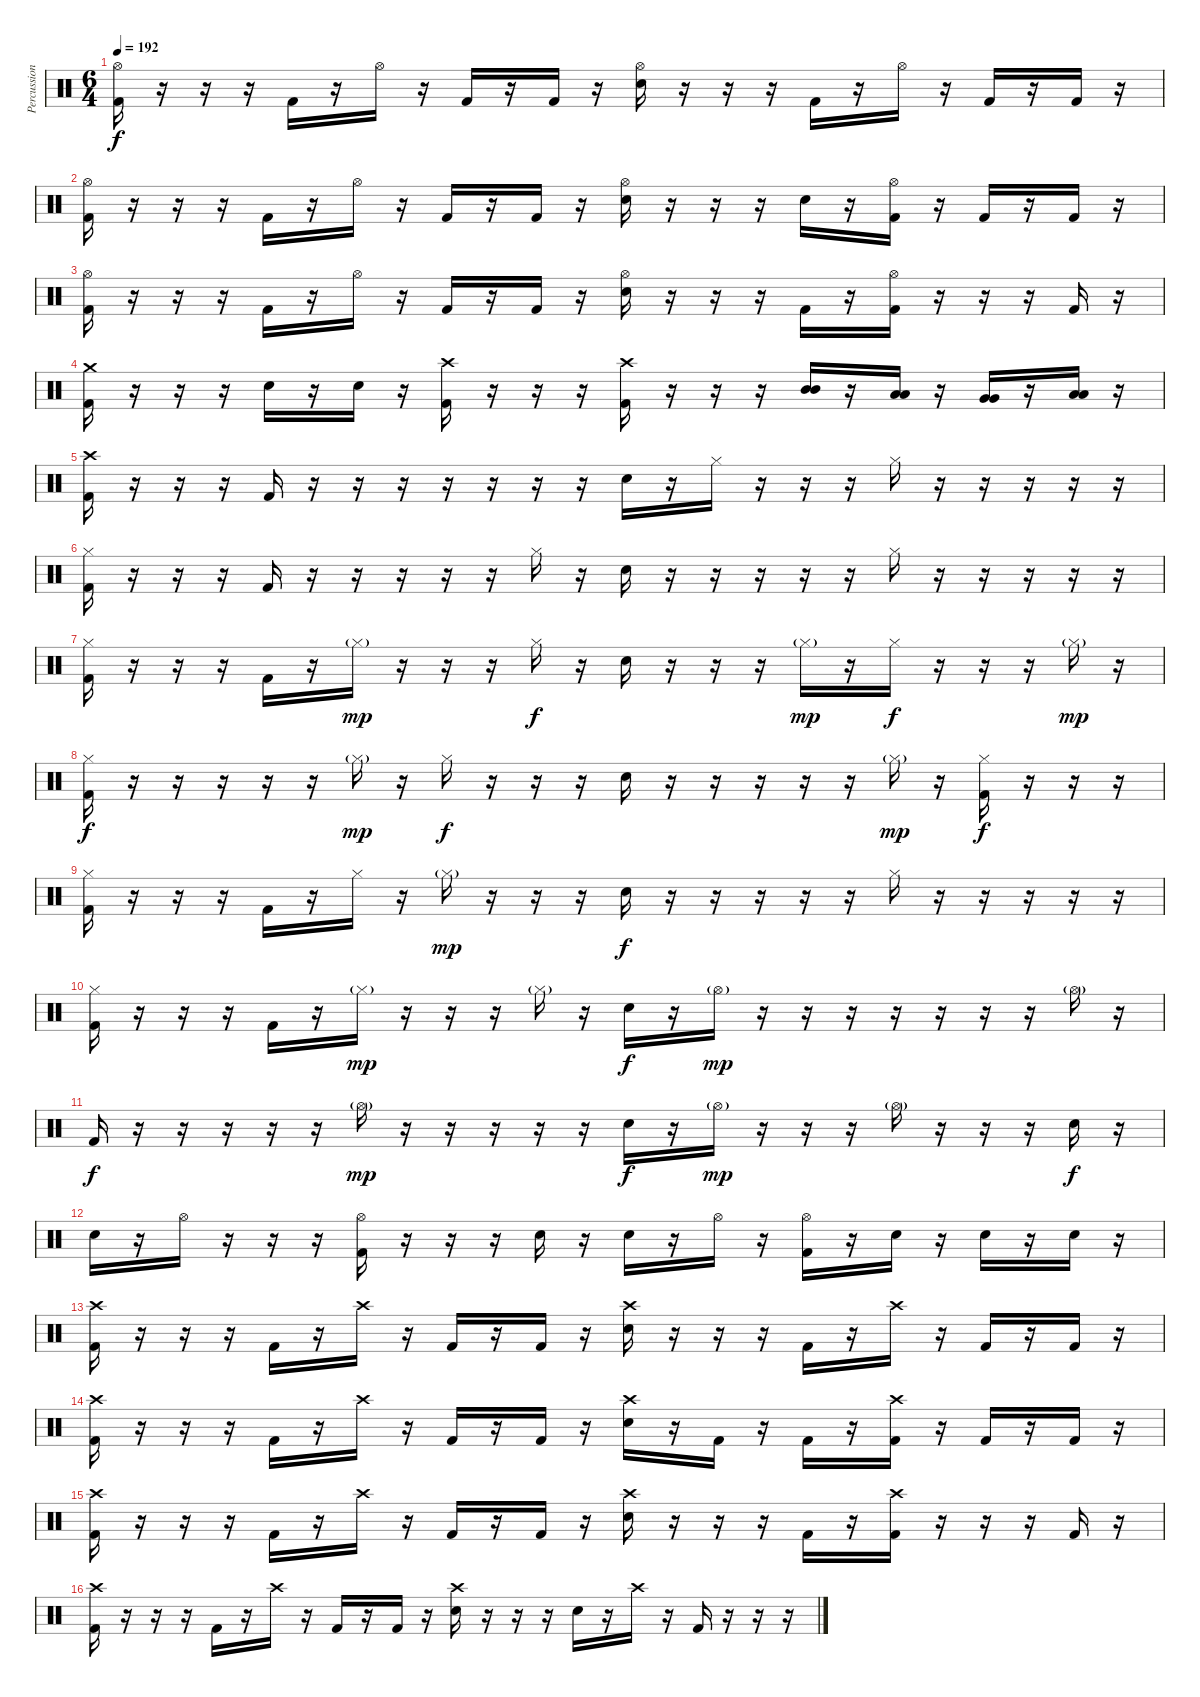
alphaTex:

\track ("Percussion" "Percussion") {instrument percussion}
\staff {score}
\articulation defaults
\ts (6 4)
\tempo 192
\clef neutral
\ks c
("Hi-Hat (open)" "Kick (hit) 2").16{dy f} r.16 r.16 r.16 "Kick (hit) 2".16 r.16 "Hi-Hat (open)".16 r.16 "Kick (hit) 2".16 r.16 "Kick (hit) 2".16 r.16 ("Hi-Hat (open)" "Snare (hit) 2").16 r.16 r.16 r.16 "Kick (hit) 2".16 r.16 "Hi-Hat (open)".16 r.16 "Kick (hit) 2".16 r.16 "Kick (hit) 2".16 r.16 |
("Hi-Hat (open)" "Kick (hit) 2").16 r.16 r.16 r.16 "Kick (hit) 2".16 r.16 "Hi-Hat (open)".16 r.16 "Kick (hit) 2".16 r.16 "Kick (hit) 2".16 r.16 ("Hi-Hat (open)" "Snare (hit) 2").16 r.16 r.16 r.16 "Snare (hit) 2".16 r.16 ("Hi-Hat (open)" "Kick (hit) 2").16 r.16 "Kick (hit) 2".16 r.16 "Kick (hit) 2".16 r.16 |
("Hi-Hat (open)" "Kick (hit) 2").16 r.16 r.16 r.16 "Kick (hit) 2".16 r.16 "Hi-Hat (open)".16 r.16 "Kick (hit) 2".16 r.16 "Kick (hit) 2".16 r.16 ("Hi-Hat (open)" "Snare (hit) 2").16 r.16 r.16 r.16 "Kick (hit) 2".16 r.16 ("Hi-Hat (open)" "Kick (hit) 2").16 r.16 r.16 r.16 "Kick (hit) 2".16 r.16 |
("Crash medium (hit)" "Kick (hit) 2").16 r.16 r.16 r.16 "Snare (hit) 2".16 r.16 "Snare (hit) 2".16 r.16 ("Crash high (hit)" "Kick (hit) 2").16 r.16 r.16 r.16 ("Crash high (hit)" "Kick (hit) 2").16 r.16 r.16 r.16 ("Mid Tom (hit)" "Mid Tom (hit)").16 r.16 ("Low Tom (hit)" "Low Tom (hit)").16 r.16 ("Very Low Tom (hit)" "Very Low Tom (hit)").16 r.16 ("Low Floor Tom (hit)" "Low Floor Tom (hit)").16 r.16 |
("Crash high (hit)" "Kick (hit) 2").16 r.16 r.16 r.16 "Kick (hit) 2".16 r.16 r.16 r.16 r.16 r.16 r.16 r.16 "Snare (hit) 2".16 r.16 "Hi-Hat (closed)".16 r.16 r.16 r.16 "Hi-Hat (closed)".16 r.16 r.16 r.16 r.16 r.16 |
("Hi-Hat (closed)" "Kick (hit) 2").16 r.16 r.16 r.16 "Kick (hit) 2".16 r.16 r.16 r.16 r.16 r.16 "Hi-Hat (closed)".16 r.16 "Snare (hit) 2".16 r.16 r.16 r.16 r.16 r.16 "Hi-Hat (closed)".16 r.16 r.16 r.16 r.16 r.16 |
("Hi-Hat (closed)" "Kick (hit) 2").16 r.16 r.16 r.16 "Kick (hit) 2".16 r.16 "Hi-Hat (closed)"{g}.16{dy mp} r.16 r.16 r.16 "Hi-Hat (closed)".16{dy f} r.16 "Snare (hit) 2".16 r.16 r.16 r.16 "Hi-Hat (closed)"{g}.16{dy mp} r.16 "Hi-Hat (closed)".16{dy f} r.16 r.16 r.16 "Hi-Hat (closed)"{g}.16{dy mp} r.16 |
("Hi-Hat (closed)" "Kick (hit) 2").16{dy f} r.16 r.16 r.16 r.16 r.16 "Hi-Hat (closed)"{g}.16{dy mp} r.16 "Hi-Hat (closed)".16{dy f} r.16 r.16 r.16 "Snare (hit) 2".16 r.16 r.16 r.16 r.16 r.16 "Hi-Hat (closed)"{g}.16{dy mp} r.16 ("Hi-Hat (closed)" "Kick (hit) 2").16{dy f} r.16 r.16 r.16 |
("Hi-Hat (closed)" "Kick (hit) 2").16 r.16 r.16 r.16 "Kick (hit) 2".16 r.16 "Hi-Hat (closed)".16 r.16 "Hi-Hat (closed)"{g}.16{dy mp} r.16 r.16 r.16 "Snare (hit) 2".16{dy f} r.16 r.16 r.16 r.16 r.16 "Hi-Hat (closed)".16 r.16 r.16 r.16 r.16 r.16 |
("Hi-Hat (closed)" "Kick (hit) 2").16 r.16 r.16 r.16 "Kick (hit) 2".16 r.16 "Hi-Hat (closed)"{g}.16{dy mp} r.16 r.16 r.16 "Hi-Hat (closed)"{g}.16 r.16 "Snare (hit) 2".16{dy f} r.16 "Hi-Hat (open)"{g}.16{dy mp} r.16 r.16 r.16 r.16 r.16 r.16 r.16 "Hi-Hat (open)"{g}.16 r.16 |
"Kick (hit) 2".16{dy f} r.16 r.16 r.16 r.16 r.16 "Hi-Hat (open)"{g}.16{dy mp} r.16 r.16 r.16 r.16 r.16 "Snare (hit) 2".16{dy f} r.16 "Hi-Hat (open)"{g}.16{dy mp} r.16 r.16 r.16 "Hi-Hat (open)"{g}.16 r.16 r.16 r.16 "Snare (hit) 2".16{dy f} r.16 |
"Snare (hit) 2".16 r.16 "Hi-Hat (open)".16 r.16 r.16 r.16 ("Hi-Hat (open)" "Kick (hit) 2").16 r.16 r.16 r.16 "Snare (hit) 2".16 r.16 "Snare (hit) 2".16 r.16 "Hi-Hat (open)".16 r.16 ("Hi-Hat (open)" "Kick (hit) 2").16 r.16 "Snare (hit) 2".16 r.16 "Snare (hit) 2".16 r.16 "Snare (hit) 2".16 r.16 |
("Crash high (hit)" "Kick (hit) 2").16 r.16 r.16 r.16 "Kick (hit) 2".16 r.16 "Crash high (hit)".16 r.16 "Kick (hit) 2".16 r.16 "Kick (hit) 2".16 r.16 ("Crash high (hit)" "Snare (hit) 2").16 r.16 r.16 r.16 "Kick (hit) 2".16 r.16 "Crash high (hit)".16 r.16 "Kick (hit) 2".16 r.16 "Kick (hit) 2".16 r.16 |
("Crash high (hit)" "Kick (hit) 2").16 r.16 r.16 r.16 "Kick (hit) 2".16 r.16 "Crash high (hit)".16 r.16 "Kick (hit) 2".16 r.16 "Kick (hit) 2".16 r.16 ("Crash high (hit)" "Snare (hit) 2").16 r.16 "Kick (hit) 2".16 r.16 "Kick (hit) 2".16 r.16 ("Crash high (hit)" "Kick (hit) 2").16 r.16 "Kick (hit) 2".16 r.16 "Kick (hit) 2".16 r.16 |
("Crash high (hit)" "Kick (hit) 2").16 r.16 r.16 r.16 "Kick (hit) 2".16 r.16 "Crash high (hit)".16 r.16 "Kick (hit) 2".16 r.16 "Kick (hit) 2".16 r.16 ("Crash high (hit)" "Snare (hit) 2").16 r.16 r.16 r.16 "Kick (hit) 2".16 r.16 ("Crash high (hit)" "Kick (hit) 2").16 r.16 r.16 r.16 "Kick (hit) 2".16 r.16 |
("Crash high (hit)" "Kick (hit) 2").16 r.16 r.16 r.16 "Kick (hit) 2".16 r.16 "Crash high (hit)".16 r.16 "Kick (hit) 2".16 r.16 "Kick (hit) 2".16 r.16 ("Crash high (hit)" "Snare (hit) 2").16 r.16 r.16 r.16 "Snare (hit) 2".16 r.16 "Crash high (hit)".16 r.16 "Kick (hit) 2".16 r.16 r.16 r.16
